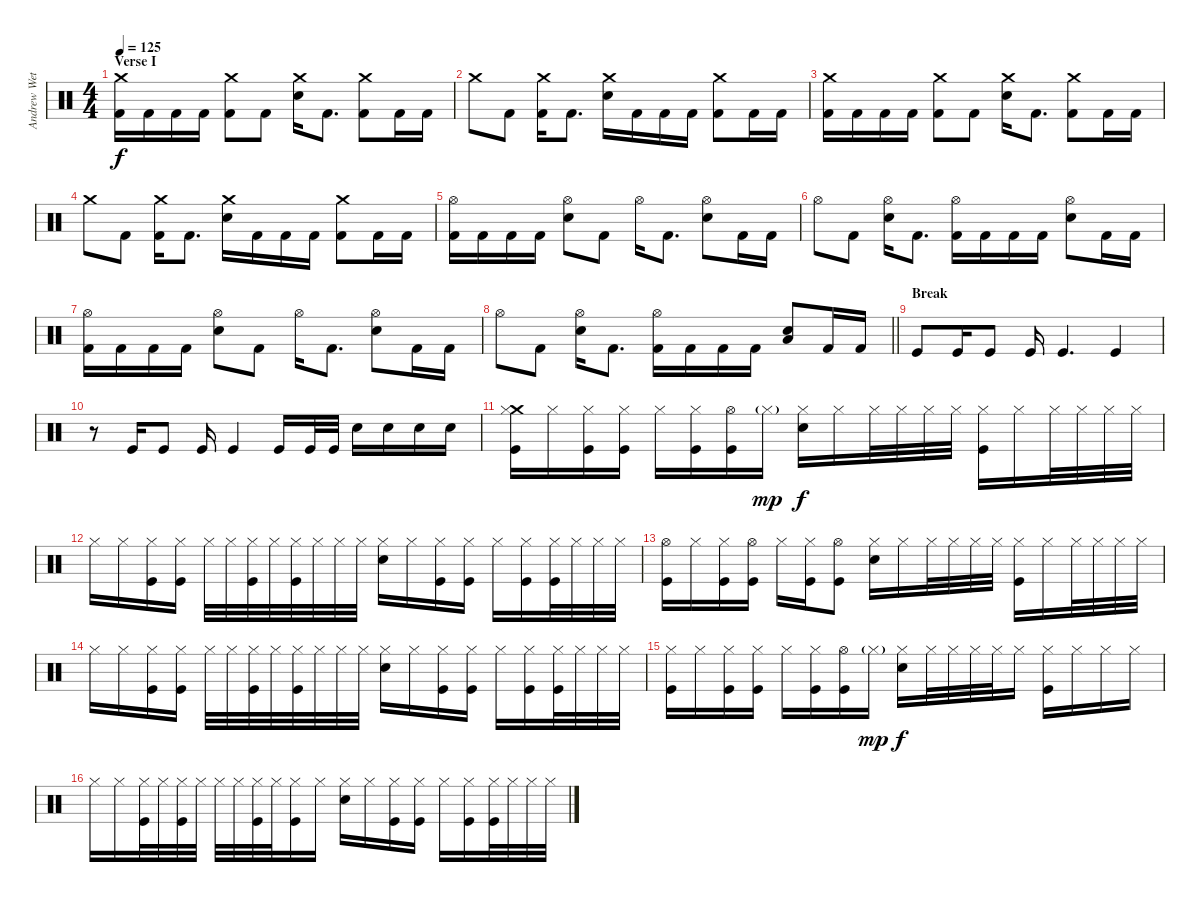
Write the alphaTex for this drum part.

\track ("Andrew Wetzel" "Andrew Wet") {instrument percussion}
\staff {score}
\articulation defaults
\ts (4 4)
\section ("" "Verse I")
\tempo 125
\clef neutral
\ks c
("Crash medium (hit)" "Kick (hit) 2").16{dy f} "Kick (hit) 2".16 "Kick (hit) 2".16 "Kick (hit) 2".16 ("Crash medium (hit)" "Kick (hit) 2").8 "Kick (hit) 2".8 ("Crash medium (hit)" "Snare (hit) 2").16 "Kick (hit) 2".8{d} ("Crash medium (hit)" "Kick (hit) 2").8 "Kick (hit) 2".16 "Kick (hit) 2".16 |
"Crash medium (hit)".8 "Kick (hit) 2".8 ("Crash medium (hit)" "Kick (hit) 2").16 "Kick (hit) 2".8{d} ("Crash medium (hit)" "Snare (hit) 2").16 "Kick (hit) 2".16 "Kick (hit) 2".16 "Kick (hit) 2".16 ("Crash medium (hit)" "Kick (hit) 2").8 "Kick (hit) 2".16 "Kick (hit) 2".16 |
("Crash medium (hit)" "Kick (hit) 2").16 "Kick (hit) 2".16 "Kick (hit) 2".16 "Kick (hit) 2".16 ("Crash medium (hit)" "Kick (hit) 2").8 "Kick (hit) 2".8 ("Crash medium (hit)" "Snare (hit) 2").16 "Kick (hit) 2".8{d} ("Crash medium (hit)" "Kick (hit) 2").8 "Kick (hit) 2".16 "Kick (hit) 2".16 |
"Crash medium (hit)".8 "Kick (hit) 2".8 ("Crash medium (hit)" "Kick (hit) 2").16 "Kick (hit) 2".8{d} ("Crash medium (hit)" "Snare (hit) 2").16 "Kick (hit) 2".16 "Kick (hit) 2".16 "Kick (hit) 2".16 ("Crash medium (hit)" "Kick (hit) 2").8 "Kick (hit) 2".16 "Kick (hit) 2".16 |
("Hi-Hat (open)" "Kick (hit) 2").16 "Kick (hit) 2".16 "Kick (hit) 2".16 "Kick (hit) 2".16 ("Hi-Hat (open)" "Snare (hit) 2").8 "Kick (hit) 2".8 "Hi-Hat (open)".16 "Kick (hit) 2".8{d} ("Hi-Hat (open)" "Snare (hit) 2").8 "Kick (hit) 2".16 "Kick (hit) 2".16 |
"Hi-Hat (open)".8 "Kick (hit) 2".8 ("Hi-Hat (open)" "Snare (hit) 2").16 "Kick (hit) 2".8{d} ("Hi-Hat (open)" "Kick (hit) 2").16 "Kick (hit) 2".16 "Kick (hit) 2".16 "Kick (hit) 2".16 ("Hi-Hat (open)" "Snare (hit) 2").8 "Kick (hit) 2".16 "Kick (hit) 2".16 |
("Hi-Hat (open)" "Kick (hit) 2").16 "Kick (hit) 2".16 "Kick (hit) 2".16 "Kick (hit) 2".16 ("Hi-Hat (open)" "Snare (hit) 2").8 "Kick (hit) 2".8 "Hi-Hat (open)".16 "Kick (hit) 2".8{d} ("Hi-Hat (open)" "Snare (hit) 2").8 "Kick (hit) 2".16 "Kick (hit) 2".16 |
\barLineRight lightlight "Hi-Hat (open)".8 "Kick (hit) 2".8
("Hi-Hat (open)" "Snare (hit) 2").16 "Kick (hit) 2".8{d} ("Hi-Hat (open)" "Kick (hit) 2").16 "Kick (hit) 2".16 "Kick (hit) 2".16 "Kick (hit) 2".16 ("Low Floor Tom (hit)" "Snare (hit) 2").8 "Kick (hit) 2".16 "Kick (hit) 2".16 |
\section ("" "Break")
"Kick (hit)".8{volume 7} "Kick (hit)".16 "Kick (hit)".8 "Kick (hit)".16 "Kick (hit)".4{d} "Kick (hit)".4 |
r.8 "Kick (hit)".16 "Kick (hit)".8 "Kick (hit)".16 "Kick (hit)".4 "Kick (hit)".16 "Kick (hit)".32 "Kick (hit)".32 "Snare (hit) 2".16{volume 13} "Snare (hit) 2".16 "Snare (hit) 2".16 "Snare (hit) 2".16 |
("Crash medium (hit)" "Hi-Hat (closed)" "Kick (hit)").16 "Hi-Hat (closed)".16 ("Hi-Hat (closed)" "Kick (hit)").16 ("Hi-Hat (closed)" "Kick (hit)").16 "Hi-Hat (closed)".16 ("Hi-Hat (closed)" "Kick (hit)").16 ("Hi-Hat (open)" "Kick (hit)").16 "Hi-Hat (closed)"{g}.16{dy mp} ("Hi-Hat (closed)" "Snare (hit) 2").16{dy f} "Hi-Hat (closed)".16 "Hi-Hat (closed)".32 "Hi-Hat (closed)".32 "Hi-Hat (closed)".32 "Hi-Hat (closed)".32 ("Hi-Hat (closed)" "Kick (hit)").16 "Hi-Hat (closed)".16 "Hi-Hat (closed)".32 "Hi-Hat (closed)".32 "Hi-Hat (closed)".32 "Hi-Hat (closed)".32 |
"Hi-Hat (closed)".16 "Hi-Hat (closed)".16 ("Hi-Hat (closed)" "Kick (hit)").16 ("Hi-Hat (closed)" "Kick (hit)").16 "Hi-Hat (closed)".32 "Hi-Hat (closed)".32 ("Hi-Hat (closed)" "Kick (hit)").32 "Hi-Hat (closed)".32 ("Hi-Hat (closed)" "Kick (hit)").32 "Hi-Hat (closed)".32 "Hi-Hat (closed)".32 "Hi-Hat (closed)".32 ("Hi-Hat (closed)" "Snare (hit) 2").16 "Hi-Hat (closed)".16 ("Hi-Hat (closed)" "Kick (hit)").16 ("Hi-Hat (closed)" "Kick (hit)").16 "Hi-Hat (closed)".16 ("Hi-Hat (closed)" "Kick (hit)").16 ("Hi-Hat (closed)" "Kick (hit)").32 "Hi-Hat (closed)".32 "Hi-Hat (closed)".32 "Hi-Hat (closed)".32 |
("Hi-Hat (open)" "Kick (hit)").16 "Hi-Hat (closed)".16 ("Hi-Hat (closed)" "Kick (hit)").16 ("Hi-Hat (open)" "Kick (hit)").16 "Hi-Hat (closed)".16 ("Hi-Hat (closed)" "Kick (hit)").16 ("Hi-Hat (open)" "Kick (hit)").8 ("Hi-Hat (closed)" "Snare (hit) 2").16 "Hi-Hat (closed)".16 "Hi-Hat (closed)".32 "Hi-Hat (closed)".32 "Hi-Hat (closed)".32 "Hi-Hat (closed)".32 ("Hi-Hat (closed)" "Kick (hit)").16 "Hi-Hat (closed)".16 "Hi-Hat (closed)".32 "Hi-Hat (closed)".32 "Hi-Hat (closed)".32 "Hi-Hat (closed)".32 |
"Hi-Hat (closed)".16 "Hi-Hat (closed)".16 ("Hi-Hat (closed)" "Kick (hit)").16 ("Hi-Hat (closed)" "Kick (hit)").16 "Hi-Hat (closed)".32 "Hi-Hat (closed)".32 ("Hi-Hat (closed)" "Kick (hit)").32 "Hi-Hat (closed)".32 ("Hi-Hat (closed)" "Kick (hit)").32 "Hi-Hat (closed)".32 "Hi-Hat (closed)".32 "Hi-Hat (closed)".32 ("Hi-Hat (closed)" "Snare (hit) 2").16 "Hi-Hat (closed)".16 ("Hi-Hat (closed)" "Kick (hit)").16 ("Hi-Hat (closed)" "Kick (hit)").16 "Hi-Hat (closed)".16 ("Hi-Hat (closed)" "Kick (hit)").16 ("Hi-Hat (closed)" "Kick (hit)").32 "Hi-Hat (closed)".32 "Hi-Hat (closed)".32 "Hi-Hat (closed)".32 |
("Hi-Hat (closed)" "Kick (hit)").16 "Hi-Hat (closed)".16 ("Hi-Hat (closed)" "Kick (hit)").16 ("Hi-Hat (closed)" "Kick (hit)").16 "Hi-Hat (closed)".16 ("Hi-Hat (closed)" "Kick (hit)").16 ("Hi-Hat (open)" "Kick (hit)").16 "Hi-Hat (closed)"{g}.16{dy mp} ("Hi-Hat (closed)" "Snare (hit) 2").16{dy f} "Hi-Hat (closed)".32 "Hi-Hat (closed)".32 "Hi-Hat (closed)".32 "Hi-Hat (closed)".32 "Hi-Hat (closed)".16 ("Hi-Hat (closed)" "Kick (hit)").16 "Hi-Hat (closed)".16 "Hi-Hat (closed)".16 "Hi-Hat (closed)".16 |
"Hi-Hat (closed)".16 "Hi-Hat (closed)".16 ("Hi-Hat (closed)" "Kick (hit)").32 "Hi-Hat (closed)".32 ("Hi-Hat (closed)" "Kick (hit)").32 "Hi-Hat (closed)".32 "Hi-Hat (closed)".32 "Hi-Hat (closed)".32 ("Hi-Hat (closed)" "Kick (hit)").32 "Hi-Hat (closed)".32 ("Hi-Hat (closed)" "Kick (hit)").16 "Hi-Hat (closed)".16 ("Hi-Hat (closed)" "Snare (hit) 2").16 "Hi-Hat (closed)".16 ("Hi-Hat (closed)" "Kick (hit)").16 ("Hi-Hat (closed)" "Kick (hit)").16 "Hi-Hat (closed)".16 ("Hi-Hat (closed)" "Kick (hit)").16 ("Hi-Hat (closed)" "Kick (hit)").32 "Hi-Hat (closed)".32 "Hi-Hat (closed)".32 "Hi-Hat (closed)".32
